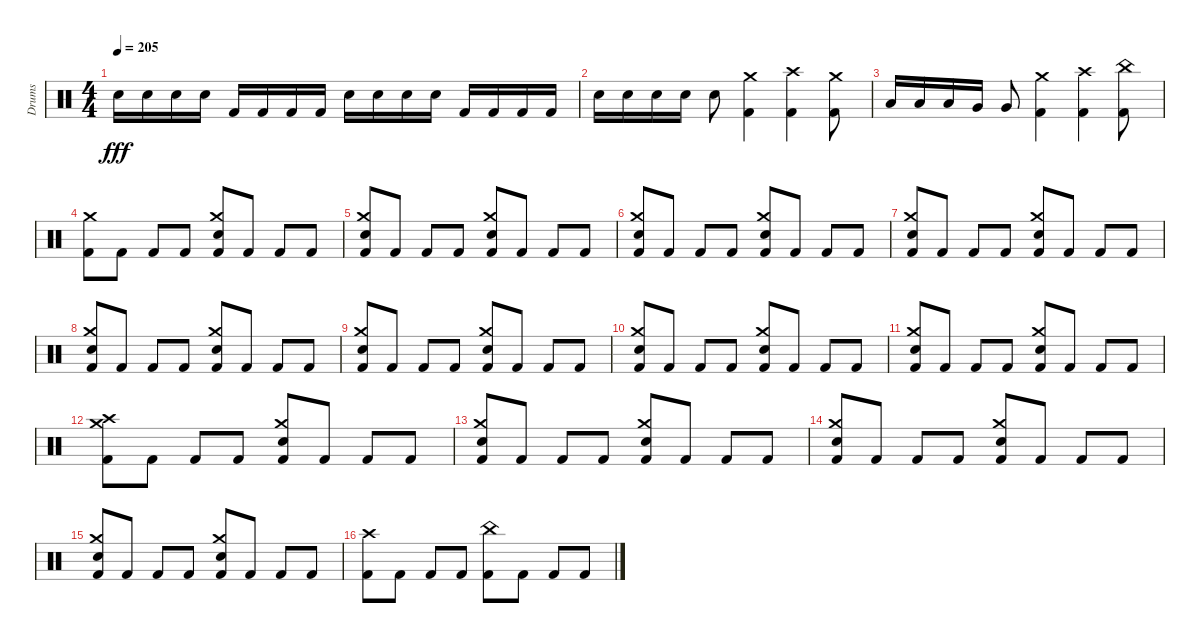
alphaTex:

\track ("Drums" "Drums") {instrument percussion}
\staff {score}
\articulation defaults
\ts (4 4)
\tempo 205
\clef neutral
\ks c "Electric Snare (hit)".16{dy fff} "Electric Snare (hit)".16 "Electric Snare (hit)".16 "Electric Snare (hit)".16 "Kick (hit) 2".16 "Kick (hit) 2".16 "Kick (hit) 2".16 "Kick (hit) 2".16 "Electric Snare (hit)".16 "Electric Snare (hit)".16 "Electric Snare (hit)".16 "Electric Snare (hit)".16 "Kick (hit) 2".16 "Kick (hit) 2".16 "Kick (hit) 2".16 "Kick (hit) 2".16
|
"Electric Snare (hit)".16 "Electric Snare (hit)".16 "Electric Snare (hit)".16 "Electric Snare (hit)".16 "Electric Snare (hit)".8 ("Crash medium (hit)" "Kick (hit) 2").4 ("Crash high (hit)" "Kick (hit) 2").4 ("Crash medium (hit)" "Kick (hit) 2").8 |
"Low Tom (hit)".16 "Low Tom (hit)".16 "Low Tom (hit)".16 "Very Low Tom (hit)".16 "Very Low Tom (hit)".8 ("Crash medium (hit)" "Kick (hit) 2").4 ("Crash high (hit)" "Kick (hit) 2").4 ("China (hit)" "Kick (hit) 2").8 |
("Crash medium (hit)" "Kick (hit) 2").8 "Kick (hit) 2".8 "Kick (hit) 2".8 "Kick (hit) 2".8 ("Crash medium (hit)" "Snare (hit) 2" "Kick (hit) 2").8 "Kick (hit) 2".8 "Kick (hit) 2".8 "Kick (hit) 2".8 |
("Crash medium (hit)" "Snare (hit) 2" "Kick (hit) 2").8 "Kick (hit) 2".8 "Kick (hit) 2".8 "Kick (hit) 2".8 ("Crash medium (hit)" "Snare (hit) 2" "Kick (hit) 2").8 "Kick (hit) 2".8 "Kick (hit) 2".8 "Kick (hit) 2".8 |
("Crash medium (hit)" "Snare (hit) 2" "Kick (hit) 2").8 "Kick (hit) 2".8 "Kick (hit) 2".8 "Kick (hit) 2".8 ("Crash medium (hit)" "Snare (hit) 2" "Kick (hit) 2").8 "Kick (hit) 2".8 "Kick (hit) 2".8 "Kick (hit) 2".8 |
("Crash medium (hit)" "Snare (hit) 2" "Kick (hit) 2").8 "Kick (hit) 2".8 "Kick (hit) 2".8 "Kick (hit) 2".8 ("Crash medium (hit)" "Snare (hit) 2" "Kick (hit) 2").8 "Kick (hit) 2".8 "Kick (hit) 2".8 "Kick (hit) 2".8 |
("Crash medium (hit)" "Snare (hit) 2" "Kick (hit) 2").8 "Kick (hit) 2".8 "Kick (hit) 2".8 "Kick (hit) 2".8 ("Crash medium (hit)" "Snare (hit) 2" "Kick (hit) 2").8 "Kick (hit) 2".8 "Kick (hit) 2".8 "Kick (hit) 2".8 |
("Crash medium (hit)" "Snare (hit) 2" "Kick (hit) 2").8 "Kick (hit) 2".8 "Kick (hit) 2".8 "Kick (hit) 2".8 ("Crash medium (hit)" "Snare (hit) 2" "Kick (hit) 2").8 "Kick (hit) 2".8 "Kick (hit) 2".8 "Kick (hit) 2".8 |
("Crash medium (hit)" "Snare (hit) 2" "Kick (hit) 2").8 "Kick (hit) 2".8 "Kick (hit) 2".8 "Kick (hit) 2".8 ("Crash medium (hit)" "Snare (hit) 2" "Kick (hit) 2").8 "Kick (hit) 2".8 "Kick (hit) 2".8 "Kick (hit) 2".8 |
("Crash medium (hit)" "Snare (hit) 2" "Kick (hit) 2").8 "Kick (hit) 2".8 "Kick (hit) 2".8 "Kick (hit) 2".8 ("Crash medium (hit)" "Snare (hit) 2" "Kick (hit) 2").8 "Kick (hit) 2".8 "Kick (hit) 2".8 "Kick (hit) 2".8 |
("Crash medium (hit)" "Crash high (hit)" "Kick (hit) 2").8 "Kick (hit) 2".8 "Kick (hit) 2".8 "Kick (hit) 2".8 ("Crash medium (hit)" "Snare (hit) 2" "Kick (hit) 2").8 "Kick (hit) 2".8 "Kick (hit) 2".8 "Kick (hit) 2".8 |
("Crash medium (hit)" "Snare (hit) 2" "Kick (hit) 2").8 "Kick (hit) 2".8 "Kick (hit) 2".8 "Kick (hit) 2".8 ("Crash medium (hit)" "Snare (hit) 2" "Kick (hit) 2").8 "Kick (hit) 2".8 "Kick (hit) 2".8 "Kick (hit) 2".8 |
("Crash medium (hit)" "Snare (hit) 2" "Kick (hit) 2").8 "Kick (hit) 2".8 "Kick (hit) 2".8 "Kick (hit) 2".8 ("Crash medium (hit)" "Snare (hit) 2" "Kick (hit) 2").8 "Kick (hit) 2".8 "Kick (hit) 2".8 "Kick (hit) 2".8 |
("Crash medium (hit)" "Snare (hit) 2" "Kick (hit) 2").8 "Kick (hit) 2".8 "Kick (hit) 2".8 "Kick (hit) 2".8 ("Crash medium (hit)" "Snare (hit) 2" "Kick (hit) 2").8 "Kick (hit) 2".8 "Kick (hit) 2".8 "Kick (hit) 2".8 |
("Crash high (hit)" "Kick (hit) 2").8 "Kick (hit) 2".8 "Kick (hit) 2".8 "Kick (hit) 2".8 ("China (hit)" "Kick (hit) 2").8 "Kick (hit) 2".8 "Kick (hit) 2".8 "Kick (hit) 2".8
